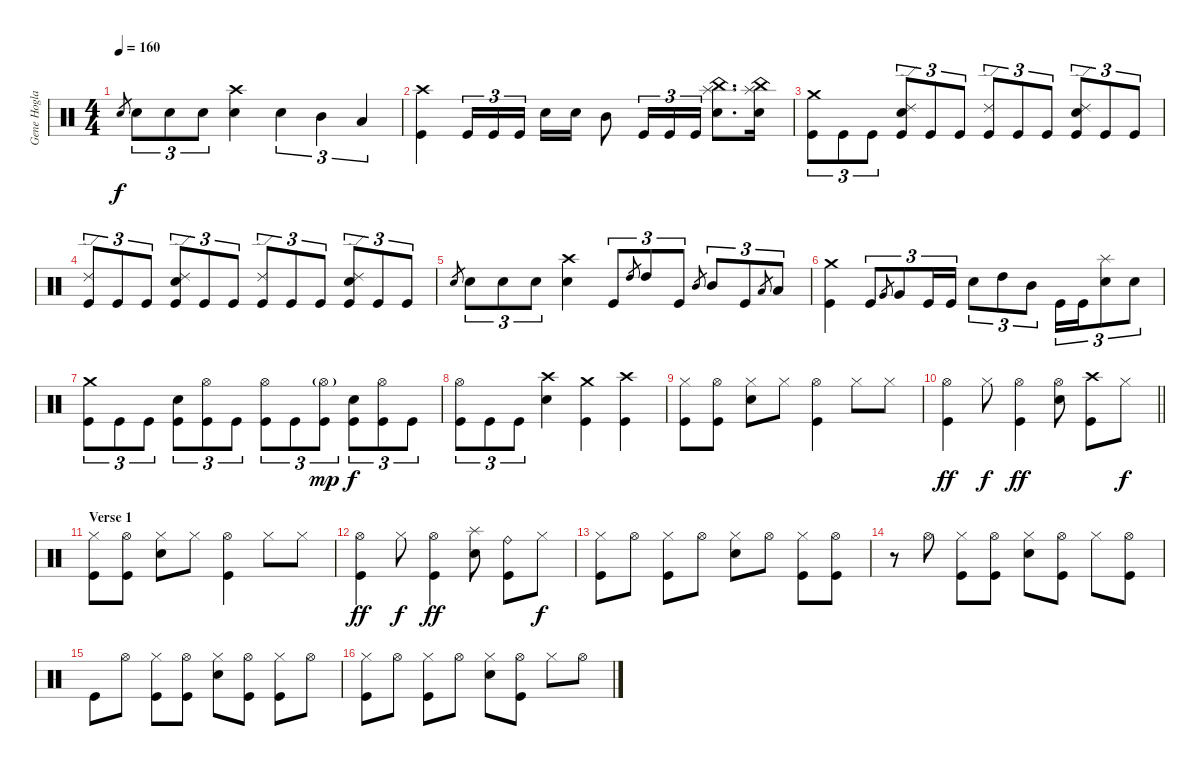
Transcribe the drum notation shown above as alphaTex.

\track ("Gene Hoglan" "Gene Hogla") {instrument percussion}
\staff {score}
\articulation defaults
\ts (4 4)
\tempo 160
\clef neutral
\ks c "Electric Snare (hit)".8{gr dy f} "Electric Snare (hit)".8{tu (3 2)} "Electric Snare (hit)".8{tu (3 2)} "Electric Snare (hit)".8{tu (3 2)}
("Crash high (hit)" "Electric Snare (hit)").4 "Electric Snare (hit)".4{tu (3 2)} "Mid Tom (hit)".4{tu (3 2)} "Low Tom (hit)".4{tu (3 2)} |
("Crash high (hit)" "Kick (hit)").4 "Kick (hit)".16{tu (3 2)} "Kick (hit)".16{tu (3 2)} "Kick (hit)".16{tu (3 2)} "Electric Snare (hit)".16 "Electric Snare (hit)".16 "Mid Tom (hit)".8 "Kick (hit)".16{tu (3 2)} "Kick (hit)".16{tu (3 2)} "Kick (hit)".16{tu (3 2)} ("Splash (hit)" "China (hit)" "Electric Snare (hit)").8{d} ("Splash (hit)" "China (hit)" "Electric Snare (hit)").16 |
("Crash medium (hit)" "Kick (hit)").8{tu (3 2)} "Kick (hit)".8{tu (3 2)} "Kick (hit)".8{tu (3 2)} ("Ride (edge) 2" "Electric Snare (hit)" "Kick (hit)").8{tu (3 2)} "Kick (hit)".8{tu (3 2)} "Kick (hit)".8{tu (3 2)} ("Ride (edge) 2" "Kick (hit)").8{tu (3 2)} "Kick (hit)".8{tu (3 2)} "Kick (hit)".8{tu (3 2)} ("Ride (edge) 2" "Electric Snare (hit)" "Kick (hit)").8{tu (3 2)} "Kick (hit)".8{tu (3 2)} "Kick (hit)".8{tu (3 2)} |
("Ride (edge) 2" "Kick (hit)").8{tu (3 2)} "Kick (hit)".8{tu (3 2)} "Kick (hit)".8{tu (3 2)} ("Ride (edge) 2" "Electric Snare (hit)" "Kick (hit)").8{tu (3 2)} "Kick (hit)".8{tu (3 2)} "Kick (hit)".8{tu (3 2)} ("Ride (edge) 2" "Kick (hit)").8{tu (3 2)} "Kick (hit)".8{tu (3 2)} "Kick (hit)".8{tu (3 2)} ("Ride (edge) 2" "Electric Snare (hit)" "Kick (hit)").8{tu (3 2)} "Kick (hit)".8{tu (3 2)} "Kick (hit)".8{tu (3 2)} |
"Electric Snare (hit)".8{gr} "Electric Snare (hit)".8{tu (3 2)} "Electric Snare (hit)".8{tu (3 2)} "Electric Snare (hit)".8{tu (3 2)} ("Crash high (hit)" "Electric Snare (hit)").4 "Kick (hit)".8{tu (3 2)} "High Tom (hit)".8{gr} "High Tom (hit)".8{tu (3 2)} "Kick (hit)".8{tu (3 2)} "Mid Tom (hit)".8{gr} "Mid Tom (hit)".8{tu (3 2)} "Kick (hit)".8{tu (3 2)} "Low Tom (hit)".8{gr} "Low Tom (hit)".8{tu (3 2)} |
("Crash medium (hit)" "Kick (hit)").4 "Kick (hit)".8{tu (3 2)} "Very Low Tom (hit)".8{gr} "Very Low Tom (hit)".8{tu (3 2)} "Kick (hit)".16{tu (3 2)} "Kick (hit)".16{tu (3 2)} "Electric Snare (hit)".8{tu (3 2)} "High Tom (hit)".8{tu (3 2)} "Mid Tom (hit)".8{tu (3 2)} "Kick (hit)".16{tu (3 2)} "Kick (hit)".16{tu (3 2)} ("Splash (hit)" "Electric Snare (hit)").8{tu (3 2)} "Electric Snare (hit)".8{tu (3 2)} |
("Crash medium (hit)" "Kick (hit)").8{tu (3 2)} "Kick (hit)".8{tu (3 2)} "Kick (hit)".8{tu (3 2)} ("Electric Snare (hit)" "Kick (hit)").8{tu (3 2)} ("Hi-Hat (open)" "Kick (hit)").8{tu (3 2)} "Kick (hit)".8{tu (3 2)} ("Hi-Hat (open)" "Kick (hit)").8{tu (3 2)} "Kick (hit)".8{tu (3 2)} ("Hi-Hat (open)"{g} "Kick (hit)").8{tu (3 2) dy mp} ("Electric Snare (hit)" "Kick (hit)").8{tu (3 2) dy f} ("Hi-Hat (open)" "Kick (hit)").8{tu (3 2)} "Kick (hit)".8{tu (3 2)} |
("Hi-Hat (open)" "Kick (hit)").8{tu (3 2)} "Kick (hit)".8{tu (3 2)} "Kick (hit)".8{tu (3 2)} ("Crash high (hit)" "Electric Snare (hit)").4 ("Crash medium (hit)" "Kick (hit)").4 ("Crash high (hit)" "Kick (hit)").4 |
("Hi-Hat (closed)" "Kick (hit)").8 ("Hi-Hat (open)" "Kick (hit)").8 ("Hi-Hat (closed)" "Electric Snare (hit)").8 "Hi-Hat (closed)".8 ("Hi-Hat (open)" "Kick (hit)").4 "Hi-Hat (closed)".8 "Hi-Hat (closed)".8 |
\barLineRight lightlight
("Hi-Hat (open)" "Kick (hit)").4{dy ff} "Hi-Hat (closed)".8{dy f} ("Hi-Hat (open)" "Kick (hit)").4{dy ff} ("Hi-Hat (open)" "Electric Snare (hit)").8 ("Crash high (hit)" "Kick (hit)").8 "Hi-Hat (closed)".8{dy f} |
\section ("" "Verse 1")
("Hi-Hat (closed)" "Kick (hit)").8 ("Hi-Hat (open)" "Kick (hit)").8 ("Hi-Hat (closed)" "Electric Snare (hit)").8 "Hi-Hat (closed)".8 ("Hi-Hat (open)" "Kick (hit)").4 "Hi-Hat (closed)".8 "Hi-Hat (closed)".8 |
("Hi-Hat (open)" "Kick (hit)").4{dy ff} "Hi-Hat (closed)".8{dy f} ("Hi-Hat (open)" "Kick (hit)").4{dy ff} ("Splash (hit)" "Electric Snare (hit)").8 ("Ride (bell)" "Kick (hit)").8 "Hi-Hat (closed)".8{dy f} |
("Hi-Hat (closed)" "Kick (hit)").8 "Hi-Hat (open)".8 ("Hi-Hat (closed)" "Kick (hit)").8 "Hi-Hat (open)".8 ("Hi-Hat (closed)" "Electric Snare (hit)").8 "Hi-Hat (open)".8 ("Hi-Hat (closed)" "Kick (hit)").8 ("Hi-Hat (open)" "Kick (hit)").8 |
r.8 "Hi-Hat (open)".8 ("Hi-Hat (closed)" "Kick (hit)").8 ("Hi-Hat (open)" "Kick (hit)").8 ("Hi-Hat (closed)" "Electric Snare (hit)").8 ("Hi-Hat (open)" "Kick (hit)").8 "Hi-Hat (closed)".8 ("Hi-Hat (open)" "Kick (hit)").8 |
"Kick (hit)".8 "Hi-Hat (open)".8 ("Hi-Hat (closed)" "Kick (hit)").8 ("Hi-Hat (open)" "Kick (hit)").8 ("Hi-Hat (closed)" "Electric Snare (hit)").8 ("Hi-Hat (open)" "Kick (hit)").8 ("Hi-Hat (closed)" "Kick (hit)").8 "Hi-Hat (open)".8 |
("Hi-Hat (closed)" "Kick (hit)").8 "Hi-Hat (open)".8 ("Hi-Hat (closed)" "Kick (hit)").8 "Hi-Hat (open)".8 ("Hi-Hat (closed)" "Electric Snare (hit)").8 ("Hi-Hat (open)" "Kick (hit)").8 "Hi-Hat (closed)".8 "Hi-Hat (open)".8
